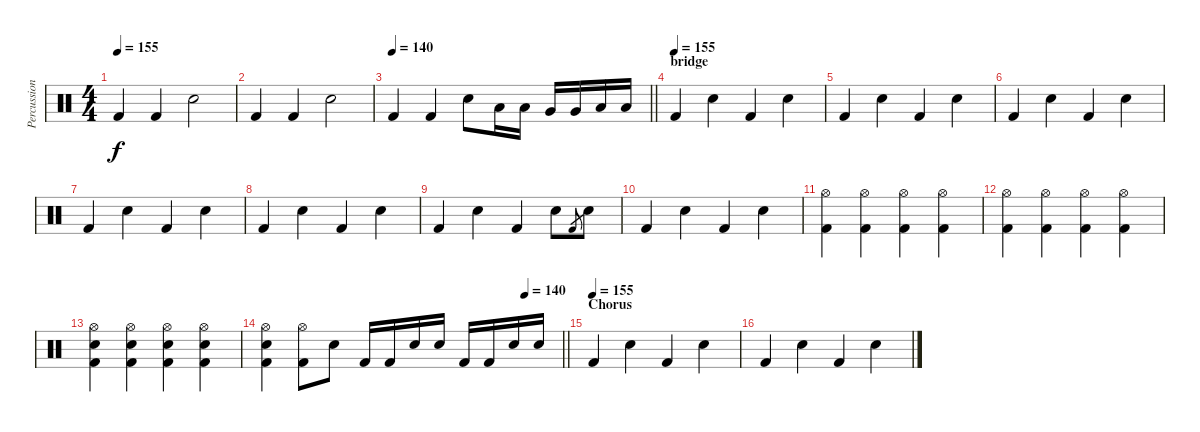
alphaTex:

\track ("Percussion" "Percussion") {instrument percussion}
\staff {score}
\articulation defaults
\ts (4 4)
\tempo 155
\clef neutral
\ks c "Kick (hit) 2".4{dy f} "Kick (hit) 2".4 "Snare (hit) 2".2
|
"Kick (hit) 2".4 "Kick (hit) 2".4 "Snare (hit) 2".2 |
\tempo 140
\barLineRight lightlight "Kick (hit) 2".4 "Kick (hit) 2".4 "Snare (hit) 2".8 "Low Tom (hit)".16 "Low Tom (hit)".16 "Very Low Tom (hit)".16 "Very Low Tom (hit)".16 "Low Floor Tom (hit)".16 "Low Floor Tom (hit)".16
|
\section ("" "bridge")
\tempo (155)
"Kick (hit) 2".4 "Snare (hit) 2".4 "Kick (hit) 2".4 "Snare (hit) 2".4 |
"Kick (hit) 2".4 "Snare (hit) 2".4 "Kick (hit) 2".4 "Snare (hit) 2".4 |
"Kick (hit) 2".4 "Snare (hit) 2".4 "Kick (hit) 2".4 "Snare (hit) 2".4 |
"Kick (hit) 2".4 "Snare (hit) 2".4 "Kick (hit) 2".4 "Snare (hit) 2".4 |
"Kick (hit) 2".4 "Snare (hit) 2".4 "Kick (hit) 2".4 "Snare (hit) 2".4 |
"Kick (hit) 2".4 "Snare (hit) 2".4 "Kick (hit) 2".4 "Snare (hit) 2".8 "Kick (hit) 2".8{gr} "Snare (hit) 2".8 |
"Kick (hit) 2".4 "Snare (hit) 2".4 "Kick (hit) 2".4 "Snare (hit) 2".4 |
("Hi-Hat (open)" "Kick (hit) 2").4 ("Hi-Hat (open)" "Kick (hit) 2").4 ("Hi-Hat (open)" "Kick (hit) 2").4 ("Hi-Hat (open)" "Kick (hit) 2").4 |
("Hi-Hat (open)" "Kick (hit) 2").4 ("Hi-Hat (open)" "Kick (hit) 2").4 ("Hi-Hat (open)" "Kick (hit) 2").4 ("Hi-Hat (open)" "Kick (hit) 2").4 |
("Hi-Hat (open)" "Snare (hit) 2" "Kick (hit) 2").4 ("Hi-Hat (open)" "Snare (hit) 2" "Kick (hit) 2").4 ("Hi-Hat (open)" "Snare (hit) 2" "Kick (hit) 2").4 ("Hi-Hat (open)" "Snare (hit) 2" "Kick (hit) 2").4 |
\tempo (140 0.875)
\barLineRight lightlight
("Hi-Hat (open)" "Snare (hit) 2" "Kick (hit) 2").4 ("Hi-Hat (open)" "Kick (hit) 2").8 "Snare (hit) 2".8 "Kick (hit) 2".16 "Kick (hit) 2".16 "Snare (hit) 2".16 "Snare (hit) 2".16 "Kick (hit) 2".16 "Kick (hit) 2".16 "Snare (hit) 2".16 "Snare (hit) 2".16 |
\section ("" "Chorus")
\tempo (155)
"Kick (hit) 2".4 "Snare (hit) 2".4 "Kick (hit) 2".4 "Snare (hit) 2".4 |
"Kick (hit) 2".4 "Snare (hit) 2".4 "Kick (hit) 2".4 "Snare (hit) 2".4
